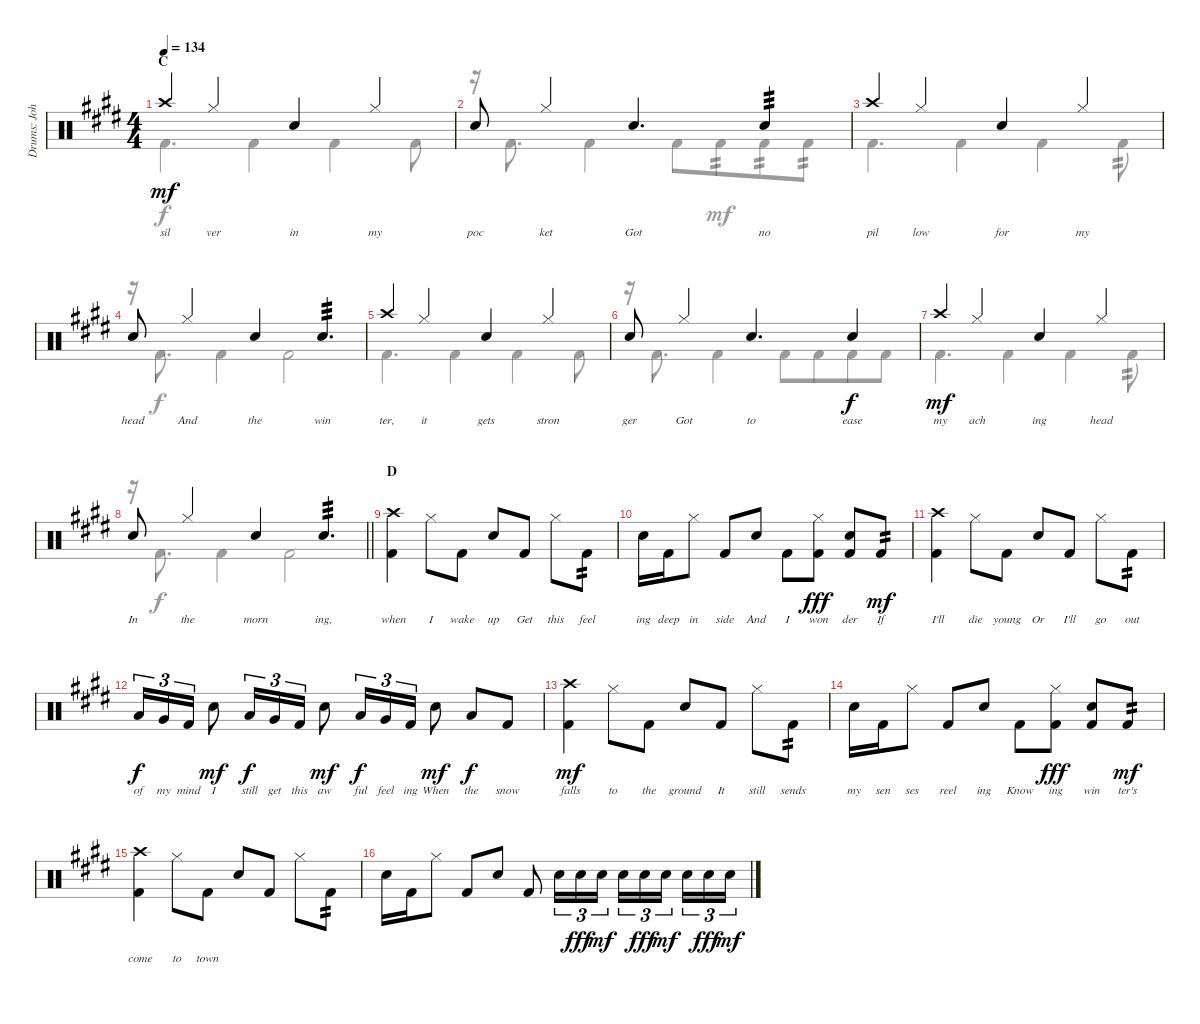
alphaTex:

\track ("Drums: John" "Drums: Joh") {instrument percussion}
\staff {score}
\articulation defaults
\voice
\ts (4 4)
\section ("" "C")
\tempo 134
\clef neutral
\ks e "Crash high (hit)".4{lyrics (0 "sil") lyrics (1 "") lyrics (2 "") lyrics (3 "") lyrics (4 "") dy mf} "Hi-Hat (closed)".4{lyrics (0 "ver") lyrics (1 "") lyrics (2 "") lyrics (3 "") lyrics (4 "")} "Electric Snare (hit)".4{lyrics (0 "in") lyrics (1 "") lyrics (2 "") lyrics (3 "") lyrics (4 "")} "Hi-Hat (closed)".4{lyrics (0 "my") lyrics (1 "") lyrics (2 "") lyrics (3 "") lyrics (4 "")}
|
"Electric Snare (hit)".8{lyrics (0 "poc") lyrics (1 "") lyrics (2 "") lyrics (3 "") lyrics (4 "")} "Hi-Hat (closed)".4{lyrics (0 "ket") lyrics (1 "") lyrics (2 "") lyrics (3 "") lyrics (4 "")} "Electric Snare (hit)".4{d lyrics (0 "Got") lyrics (1 "") lyrics (2 "") lyrics (3 "") lyrics (4 "")} "Electric Snare (hit)".4{lyrics (0 "no") lyrics (1 "") lyrics (2 "") lyrics (3 "") lyrics (4 "") tp 3} |
"Crash high (hit)".4{lyrics (0 "pil") lyrics (1 "") lyrics (2 "") lyrics (3 "") lyrics (4 "")} "Hi-Hat (closed)".4{lyrics (0 "low") lyrics (1 "") lyrics (2 "") lyrics (3 "") lyrics (4 "")} "Electric Snare (hit)".4{lyrics (0 "for") lyrics (1 "") lyrics (2 "") lyrics (3 "") lyrics (4 "")} "Hi-Hat (closed)".4{lyrics (0 "my") lyrics (1 "") lyrics (2 "") lyrics (3 "") lyrics (4 "")} |
"Electric Snare (hit)".8{lyrics (0 "head") lyrics (1 "") lyrics (2 "") lyrics (3 "") lyrics (4 "")} "Hi-Hat (closed)".4{lyrics (0 "And") lyrics (1 "") lyrics (2 "") lyrics (3 "") lyrics (4 "")} "Electric Snare (hit)".4{lyrics (0 "the") lyrics (1 "") lyrics (2 "") lyrics (3 "") lyrics (4 "")} "Electric Snare (hit)".4{d lyrics (0 "win") lyrics (1 "") lyrics (2 "") lyrics (3 "") lyrics (4 "") tp 3} |
"Crash high (hit)".4{lyrics (0 "ter,") lyrics (1 "") lyrics (2 "") lyrics (3 "") lyrics (4 "")} "Hi-Hat (closed)".4{lyrics (0 "it") lyrics (1 "") lyrics (2 "") lyrics (3 "") lyrics (4 "")} "Electric Snare (hit)".4{lyrics (0 "gets") lyrics (1 "") lyrics (2 "") lyrics (3 "") lyrics (4 "")} "Hi-Hat (closed)".4{lyrics (0 "stron") lyrics (1 "") lyrics (2 "") lyrics (3 "") lyrics (4 "")} |
"Electric Snare (hit)".8{lyrics (0 "ger") lyrics (1 "") lyrics (2 "") lyrics (3 "") lyrics (4 "")} "Hi-Hat (closed)".4{lyrics (0 "Got") lyrics (1 "") lyrics (2 "") lyrics (3 "") lyrics (4 "")} "Electric Snare (hit)".4{d lyrics (0 "to") lyrics (1 "") lyrics (2 "") lyrics (3 "") lyrics (4 "")} "Electric Snare (hit)".4{lyrics (0 "ease") lyrics (1 "") lyrics (2 "") lyrics (3 "") lyrics (4 "") dy f} |
"Crash high (hit)".4{lyrics (0 "my") lyrics (1 "") lyrics (2 "") lyrics (3 "") lyrics (4 "") dy mf} "Hi-Hat (closed)".4{lyrics (0 "ach") lyrics (1 "") lyrics (2 "") lyrics (3 "") lyrics (4 "")} "Electric Snare (hit)".4{lyrics (0 "ing") lyrics (1 "") lyrics (2 "") lyrics (3 "") lyrics (4 "")} "Hi-Hat (closed)".4{lyrics (0 "head") lyrics (1 "") lyrics (2 "") lyrics (3 "") lyrics (4 "")} |
\barLineRight lightlight "Electric Snare (hit)".8{lyrics (0 "In") lyrics (1 "") lyrics (2 "") lyrics (3 "") lyrics (4 "")} "Hi-Hat (closed)".4{lyrics (0 "the") lyrics (1 "") lyrics (2 "") lyrics (3 "") lyrics (4 "")} "Electric Snare (hit)".4{lyrics (0 "morn") lyrics (1 "") lyrics (2 "") lyrics (3 "") lyrics (4 "")} "Electric Snare (hit)".4{d lyrics (0 "ing,") lyrics (1 "") lyrics (2 "") lyrics (3 "") lyrics (4 "") tp 3}
|
\section ("" "D")
("Crash high (hit)" "Kick (hit) 2").4{lyrics (0 "when") lyrics (1 "") lyrics (2 "") lyrics (3 "") lyrics (4 "")} "Hi-Hat (closed)".8{lyrics (0 "I") lyrics (1 "") lyrics (2 "") lyrics (3 "") lyrics (4 "")} "Kick (hit) 2".8{lyrics (0 "wake") lyrics (1 "") lyrics (2 "") lyrics (3 "") lyrics (4 "")} "Electric Snare (hit)".8{lyrics (0 "up") lyrics (1 "") lyrics (2 "") lyrics (3 "") lyrics (4 "")} "Kick (hit) 2".8{lyrics (0 "Get") lyrics (1 "") lyrics (2 "") lyrics (3 "") lyrics (4 "")} "Hi-Hat (closed)".8{lyrics (0 "this") lyrics (1 "") lyrics (2 "") lyrics (3 "") lyrics (4 "")} "Kick (hit) 2".8{lyrics (0 "feel") lyrics (1 "") lyrics (2 "") lyrics (3 "") lyrics (4 "") tp 2} |
"Electric Snare (hit)".16{lyrics (0 "ing") lyrics (1 "") lyrics (2 "") lyrics (3 "") lyrics (4 "")} "Kick (hit) 2".16{lyrics (0 "deep") lyrics (1 "") lyrics (2 "") lyrics (3 "") lyrics (4 "")} "Hi-Hat (closed)".8{lyrics (0 "in") lyrics (1 "") lyrics (2 "") lyrics (3 "") lyrics (4 "")} "Kick (hit) 2".8{lyrics (0 "side") lyrics (1 "") lyrics (2 "") lyrics (3 "") lyrics (4 "")} "Electric Snare (hit)".8{lyrics (0 "And") lyrics (1 "") lyrics (2 "") lyrics (3 "") lyrics (4 "")} "Kick (hit) 2".8{lyrics (0 "I") lyrics (1 "") lyrics (2 "") lyrics (3 "") lyrics (4 "")} ("Hi-Hat (closed)" "Kick (hit) 2").8{lyrics (0 "won") lyrics (1 "") lyrics (2 "") lyrics (3 "") lyrics (4 "") dy fff} ("Electric Snare (hit)" "Kick (hit) 2").8{lyrics (0 "der") lyrics (1 "") lyrics (2 "") lyrics (3 "") lyrics (4 "")} "Kick (hit) 2".8{lyrics (0 "If") lyrics (1 "") lyrics (2 "") lyrics (3 "") lyrics (4 "") tp 2 dy mf} |
("Crash high (hit)" "Kick (hit) 2").4{lyrics (0 "I'll") lyrics (1 "") lyrics (2 "") lyrics (3 "") lyrics (4 "")} "Hi-Hat (closed)".8{lyrics (0 "die") lyrics (1 "") lyrics (2 "") lyrics (3 "") lyrics (4 "")} "Kick (hit) 2".8{lyrics (0 "young") lyrics (1 "") lyrics (2 "") lyrics (3 "") lyrics (4 "")} "Electric Snare (hit)".8{lyrics (0 "Or") lyrics (1 "") lyrics (2 "") lyrics (3 "") lyrics (4 "")} "Kick (hit) 2".8{lyrics (0 "I'll") lyrics (1 "") lyrics (2 "") lyrics (3 "") lyrics (4 "")} "Hi-Hat (closed)".8{lyrics (0 "go") lyrics (1 "") lyrics (2 "") lyrics (3 "") lyrics (4 "")} "Kick (hit) 2".8{lyrics (0 "out") lyrics (1 "") lyrics (2 "") lyrics (3 "") lyrics (4 "") tp 2} |
"Low Tom (hit)".16{tu (3 2) lyrics (0 "of") lyrics (1 "") lyrics (2 "") lyrics (3 "") lyrics (4 "") dy f} "Very Low Tom (hit)".16{tu (3 2) lyrics (0 "my") lyrics (1 "") lyrics (2 "") lyrics (3 "") lyrics (4 "")} "Kick (hit) 2".16{tu (3 2) lyrics (0 "mind") lyrics (1 "") lyrics (2 "") lyrics (3 "") lyrics (4 "")} "Electric Snare (hit)".8{lyrics (0 "I") lyrics (1 "") lyrics (2 "") lyrics (3 "") lyrics (4 "") dy mf} "Low Tom (hit)".16{tu (3 2) lyrics (0 "still") lyrics (1 "") lyrics (2 "") lyrics (3 "") lyrics (4 "") dy f} "Very Low Tom (hit)".16{tu (3 2) lyrics (0 "get") lyrics (1 "") lyrics (2 "") lyrics (3 "") lyrics (4 "")} "Kick (hit) 2".16{tu (3 2) lyrics (0 "this") lyrics (1 "") lyrics (2 "") lyrics (3 "") lyrics (4 "")} "Electric Snare (hit)".8{lyrics (0 "aw") lyrics (1 "") lyrics (2 "") lyrics (3 "") lyrics (4 "") dy mf} "Low Tom (hit)".16{tu (3 2) lyrics (0 "ful") lyrics (1 "") lyrics (2 "") lyrics (3 "") lyrics (4 "") dy f} "Very Low Tom (hit)".16{tu (3 2) lyrics (0 "feel") lyrics (1 "") lyrics (2 "") lyrics (3 "") lyrics (4 "")} "Kick (hit) 2".16{tu (3 2) lyrics (0 "ing") lyrics (1 "") lyrics (2 "") lyrics (3 "") lyrics (4 "")} "Electric Snare (hit)".8{lyrics (0 "When") lyrics (1 "") lyrics (2 "") lyrics (3 "") lyrics (4 "") dy mf} "Low Tom (hit)".8{lyrics (0 "the") lyrics (1 "") lyrics (2 "") lyrics (3 "") lyrics (4 "") dy f} "Kick (hit) 2".8{lyrics (0 "snow") lyrics (1 "") lyrics (2 "") lyrics (3 "") lyrics (4 "")} |
("Crash high (hit)" "Kick (hit) 2").4{lyrics (0 "falls") lyrics (1 "") lyrics (2 "") lyrics (3 "") lyrics (4 "") dy mf} "Hi-Hat (closed)".8{lyrics (0 "to") lyrics (1 "") lyrics (2 "") lyrics (3 "") lyrics (4 "")} "Kick (hit) 2".8{lyrics (0 "the") lyrics (1 "") lyrics (2 "") lyrics (3 "") lyrics (4 "")} "Electric Snare (hit)".8{lyrics (0 "ground") lyrics (1 "") lyrics (2 "") lyrics (3 "") lyrics (4 "")} "Kick (hit) 2".8{lyrics (0 "It") lyrics (1 "") lyrics (2 "") lyrics (3 "") lyrics (4 "")} "Hi-Hat (closed)".8{lyrics (0 "still") lyrics (1 "") lyrics (2 "") lyrics (3 "") lyrics (4 "")} "Kick (hit) 2".8{lyrics (0 "sends") lyrics (1 "") lyrics (2 "") lyrics (3 "") lyrics (4 "") tp 2} |
"Electric Snare (hit)".16{lyrics (0 "my") lyrics (1 "") lyrics (2 "") lyrics (3 "") lyrics (4 "")} "Kick (hit) 2".16{lyrics (0 "sen") lyrics (1 "") lyrics (2 "") lyrics (3 "") lyrics (4 "")} "Hi-Hat (closed)".8{lyrics (0 "ses") lyrics (1 "") lyrics (2 "") lyrics (3 "") lyrics (4 "")} "Kick (hit) 2".8{lyrics (0 "reel") lyrics (1 "") lyrics (2 "") lyrics (3 "") lyrics (4 "")} "Electric Snare (hit)".8{lyrics (0 "ing") lyrics (1 "") lyrics (2 "") lyrics (3 "") lyrics (4 "")} "Kick (hit) 2".8{lyrics (0 "Know") lyrics (1 "") lyrics (2 "") lyrics (3 "") lyrics (4 "")} ("Hi-Hat (closed)" "Kick (hit) 2").8{lyrics (0 "ing") lyrics (1 "") lyrics (2 "") lyrics (3 "") lyrics (4 "") dy fff} ("Electric Snare (hit)" "Kick (hit) 2").8{lyrics (0 "win") lyrics (1 "") lyrics (2 "") lyrics (3 "") lyrics (4 "")} "Kick (hit) 2".8{lyrics (0 "ter's") lyrics (1 "") lyrics (2 "") lyrics (3 "") lyrics (4 "") tp 2 dy mf} |
("Crash high (hit)" "Kick (hit) 2").4{lyrics (0 "come") lyrics (1 "") lyrics (2 "") lyrics (3 "") lyrics (4 "")} "Hi-Hat (closed)".8{lyrics (0 "to") lyrics (1 "") lyrics (2 "") lyrics (3 "") lyrics (4 "")} "Kick (hit) 2".8{lyrics (0 "town") lyrics (1 "") lyrics (2 "") lyrics (3 "") lyrics (4 "")} "Electric Snare (hit)".8 "Kick (hit) 2".8 "Hi-Hat (closed)".8 "Kick (hit) 2".8{tp 2} |
"Electric Snare (hit)".16 "Kick (hit) 2".16 "Hi-Hat (closed)".8 "Kick (hit) 2".8 "Electric Snare (hit)".8 "Kick (hit) 2".8 "Electric Snare (hit)".16{tu (3 2)} "Electric Snare (hit)".16{tu (3 2) dy fff} "Electric Snare (hit)".16{tu (3 2) dy mf} "Electric Snare (hit)".16{tu (3 2)} "Electric Snare (hit)".16{tu (3 2) dy fff} "Electric Snare (hit)".16{tu (3 2) dy mf beam splitsecondary} "Electric Snare (hit)".16{tu (3 2)} "Electric Snare (hit)".16{tu (3 2) dy fff} "Electric Snare (hit)".16{tu (3 2) dy mf}
\voice
\clef neutral
\ottava regular
\simile none
\ks e "Kick (hit) 2".4{d dy f} "Kick (hit) 2".4 "Kick (hit) 2".4 "Kick (hit) 2".8
|
r.16 "Kick (hit) 2".8{d} "Kick (hit) 2".4 "Kick (hit) 2".8 "Kick (hit) 2".8{tp 2 dy mf beam merge} "Kick (hit) 2".8{tp 2} "Kick (hit) 2".8{tp 2} |
"Kick (hit) 2".4{d} "Kick (hit) 2".4 "Kick (hit) 2".4 "Kick (hit) 2".8{tp 2} |
r.16 "Kick (hit) 2".8{d dy f} "Kick (hit) 2".4 "Kick (hit) 2".2 |
"Kick (hit) 2".4{d} "Kick (hit) 2".4 "Kick (hit) 2".4 "Kick (hit) 2".8 |
r.16 "Kick (hit) 2".8{d} "Kick (hit) 2".4 "Kick (hit) 2".8 "Kick (hit) 2".8{beam merge} "Kick (hit) 2".8 "Kick (hit) 2".8 |
"Kick (hit) 2".4{d dy mf} "Kick (hit) 2".4 "Kick (hit) 2".4 "Kick (hit) 2".8{tp 2} |
\barLineRight lightlight
r.16 "Kick (hit) 2".8{d dy f} "Kick (hit) 2".4 "Kick (hit) 2".2 |
|
|
|
|
|
|
|
